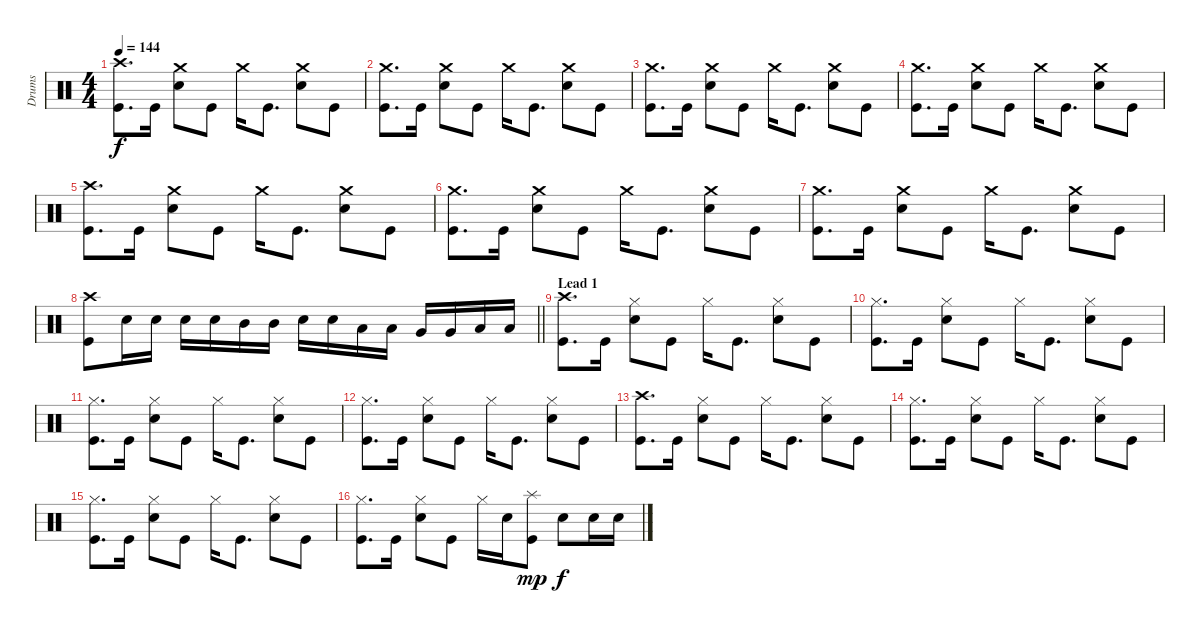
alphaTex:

\track ("Drums" "Drums") {instrument percussion}
\staff {score}
\articulation defaults
\ts (4 4)
\tempo 144
\clef neutral
\ks c
("Crash high (hit)" "Kick (hit)").8{d dy f} "Kick (hit)".16 ("Crash medium (hit)" "Electric Snare (hit)").8 "Kick (hit)".8 "Crash medium (hit)".16 "Kick (hit)".8{d} ("Crash medium (hit)" "Electric Snare (hit)").8 "Kick (hit)".8 |
("Crash medium (hit)" "Kick (hit)").8{d} "Kick (hit)".16 ("Crash medium (hit)" "Electric Snare (hit)").8 "Kick (hit)".8 "Crash medium (hit)".16 "Kick (hit)".8{d} ("Crash medium (hit)" "Electric Snare (hit)").8 "Kick (hit)".8 |
("Crash medium (hit)" "Kick (hit)").8{d} "Kick (hit)".16 ("Crash medium (hit)" "Electric Snare (hit)").8 "Kick (hit)".8 "Crash medium (hit)".16 "Kick (hit)".8{d} ("Crash medium (hit)" "Electric Snare (hit)").8 "Kick (hit)".8 |
("Crash medium (hit)" "Kick (hit)").8{d} "Kick (hit)".16 ("Crash medium (hit)" "Electric Snare (hit)").8 "Kick (hit)".8 "Crash medium (hit)".16 "Kick (hit)".8{d} ("Crash medium (hit)" "Electric Snare (hit)").8 "Kick (hit)".8 |
("Crash high (hit)" "Kick (hit)").8{d} "Kick (hit)".16 ("Crash medium (hit)" "Electric Snare (hit)").8 "Kick (hit)".8 "Crash medium (hit)".16 "Kick (hit)".8{d} ("Crash medium (hit)" "Electric Snare (hit)").8 "Kick (hit)".8 |
("Crash medium (hit)" "Kick (hit)").8{d} "Kick (hit)".16 ("Crash medium (hit)" "Electric Snare (hit)").8 "Kick (hit)".8 "Crash medium (hit)".16 "Kick (hit)".8{d} ("Crash medium (hit)" "Electric Snare (hit)").8 "Kick (hit)".8 |
("Crash medium (hit)" "Kick (hit)").8{d} "Kick (hit)".16 ("Crash medium (hit)" "Electric Snare (hit)").8 "Kick (hit)".8 "Crash medium (hit)".16 "Kick (hit)".8{d} ("Crash medium (hit)" "Electric Snare (hit)").8 "Kick (hit)".8 |
\barLineRight lightlight
("Crash high (hit)" "Kick (hit)").8 "Electric Snare (hit)".16 "Electric Snare (hit)".16 "Electric Snare (hit)".16 "Electric Snare (hit)".16 "Mid Tom (hit)".16 "Mid Tom (hit)".16 "Electric Snare (hit)".16 "Electric Snare (hit)".16 "Low Tom (hit)".16 "Low Tom (hit)".16 "Very Low Tom (hit)".16 "Very Low Tom (hit)".16 "Low Floor Tom (hit)".16 "Low Floor Tom (hit)".16 |
\section ("" "Lead 1")
("Crash high (hit)" "Kick (hit)").8{d} "Kick (hit)".16 ("Hi-Hat (closed)" "Electric Snare (hit)").8 "Kick (hit)".8 "Hi-Hat (closed)".16 "Kick (hit)".8{d} ("Hi-Hat (closed)" "Electric Snare (hit)").8 "Kick (hit)".8 |
("Hi-Hat (closed)" "Kick (hit)").8{d} "Kick (hit)".16 ("Hi-Hat (closed)" "Electric Snare (hit)").8 "Kick (hit)".8 "Hi-Hat (closed)".16 "Kick (hit)".8{d} ("Hi-Hat (closed)" "Electric Snare (hit)").8 "Kick (hit)".8 |
("Hi-Hat (closed)" "Kick (hit)").8{d} "Kick (hit)".16 ("Hi-Hat (closed)" "Electric Snare (hit)").8 "Kick (hit)".8 "Hi-Hat (closed)".16 "Kick (hit)".8{d} ("Hi-Hat (closed)" "Electric Snare (hit)").8 "Kick (hit)".8 |
("Hi-Hat (closed)" "Kick (hit)").8{d} "Kick (hit)".16 ("Hi-Hat (closed)" "Electric Snare (hit)").8 "Kick (hit)".8 "Hi-Hat (closed)".16 "Kick (hit)".8{d} ("Hi-Hat (closed)" "Electric Snare (hit)").8 "Kick (hit)".8 |
("Crash high (hit)" "Kick (hit)").8{d} "Kick (hit)".16 ("Hi-Hat (closed)" "Electric Snare (hit)").8 "Kick (hit)".8 "Hi-Hat (closed)".16 "Kick (hit)".8{d} ("Hi-Hat (closed)" "Electric Snare (hit)").8 "Kick (hit)".8 |
("Hi-Hat (closed)" "Kick (hit)").8{d} "Kick (hit)".16 ("Hi-Hat (closed)" "Electric Snare (hit)").8 "Kick (hit)".8 "Hi-Hat (closed)".16 "Kick (hit)".8{d} ("Hi-Hat (closed)" "Electric Snare (hit)").8 "Kick (hit)".8 |
("Hi-Hat (closed)" "Kick (hit)").8{d} "Kick (hit)".16 ("Hi-Hat (closed)" "Electric Snare (hit)").8 "Kick (hit)".8 "Hi-Hat (closed)".16 "Kick (hit)".8{d} ("Hi-Hat (closed)" "Electric Snare (hit)").8 "Kick (hit)".8 |
("Hi-Hat (closed)" "Kick (hit)").8{d} "Kick (hit)".16 ("Hi-Hat (closed)" "Electric Snare (hit)").8 "Kick (hit)".8 "Hi-Hat (closed)".16 "Electric Snare (hit)".16 ("Splash (hit)" "Kick (hit)").8{dy mp} "Electric Snare (hit)".8{dy f} "Electric Snare (hit)".16 "Electric Snare (hit)".16
